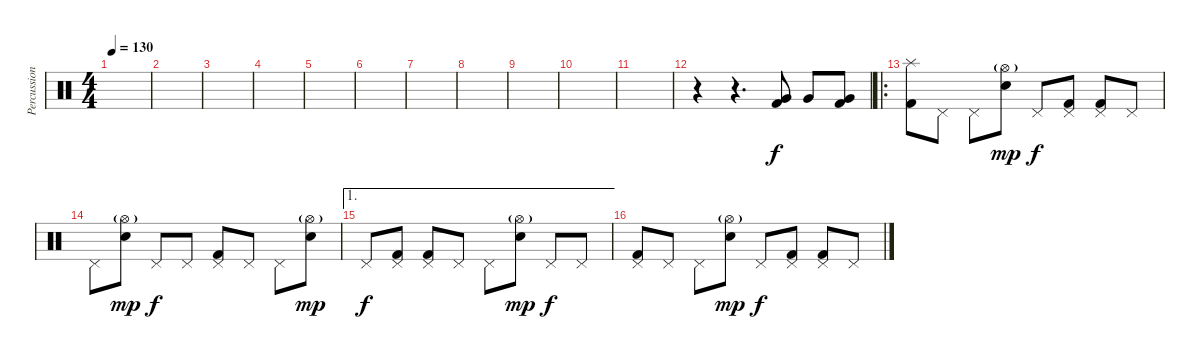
\track ("Percussion" "Percussion") {instrument percussion}
\staff {score}
\articulation defaults
\ts (4 4)
\tempo 130
\clef neutral
\ks c
|
|
|
|
|
|
|
|
|
|
|
r.4 r.4{d} ("Very Low Tom (hit)" "Kick (hit) 2").8 "Very Low Tom (hit)".8 ("Very Low Tom (hit)" "Kick (hit) 2").8 |
\ro
("Splash (hit)" "Kick (hit) 2").8 "Pedal Hi-Hat (hit)".8 "Pedal Hi-Hat (hit)".8 ("Hi-Hat (open)"{g} "Electric Snare (hit)").8{dy mp} "Pedal Hi-Hat (hit)".8{dy f} ("Pedal Hi-Hat (hit)" "Kick (hit) 2").8 ("Pedal Hi-Hat (hit)" "Kick (hit) 2").8 "Pedal Hi-Hat (hit)".8 |
"Pedal Hi-Hat (hit)".8 ("Hi-Hat (open)"{g} "Electric Snare (hit)").8{dy mp} "Pedal Hi-Hat (hit)".8{dy f} "Pedal Hi-Hat (hit)".8 ("Pedal Hi-Hat (hit)" "Kick (hit) 2").8 "Pedal Hi-Hat (hit)".8 "Pedal Hi-Hat (hit)".8 ("Hi-Hat (open)"{g} "Electric Snare (hit)").8{dy mp} |
\ae 1 "Pedal Hi-Hat (hit)".8{dy f}
("Pedal Hi-Hat (hit)" "Kick (hit) 2").8 ("Pedal Hi-Hat (hit)" "Kick (hit) 2").8 "Pedal Hi-Hat (hit)".8 "Pedal Hi-Hat (hit)".8 ("Hi-Hat (open)"{g} "Electric Snare (hit)").8{dy mp} "Pedal Hi-Hat (hit)".8{dy f} "Pedal Hi-Hat (hit)".8 |
("Pedal Hi-Hat (hit)" "Kick (hit) 2").8 "Pedal Hi-Hat (hit)".8 "Pedal Hi-Hat (hit)".8 ("Hi-Hat (open)"{g} "Electric Snare (hit)").8{dy mp} "Pedal Hi-Hat (hit)".8{dy f} ("Pedal Hi-Hat (hit)" "Kick (hit) 2").8 ("Pedal Hi-Hat (hit)" "Kick (hit) 2").8 "Pedal Hi-Hat (hit)".8
